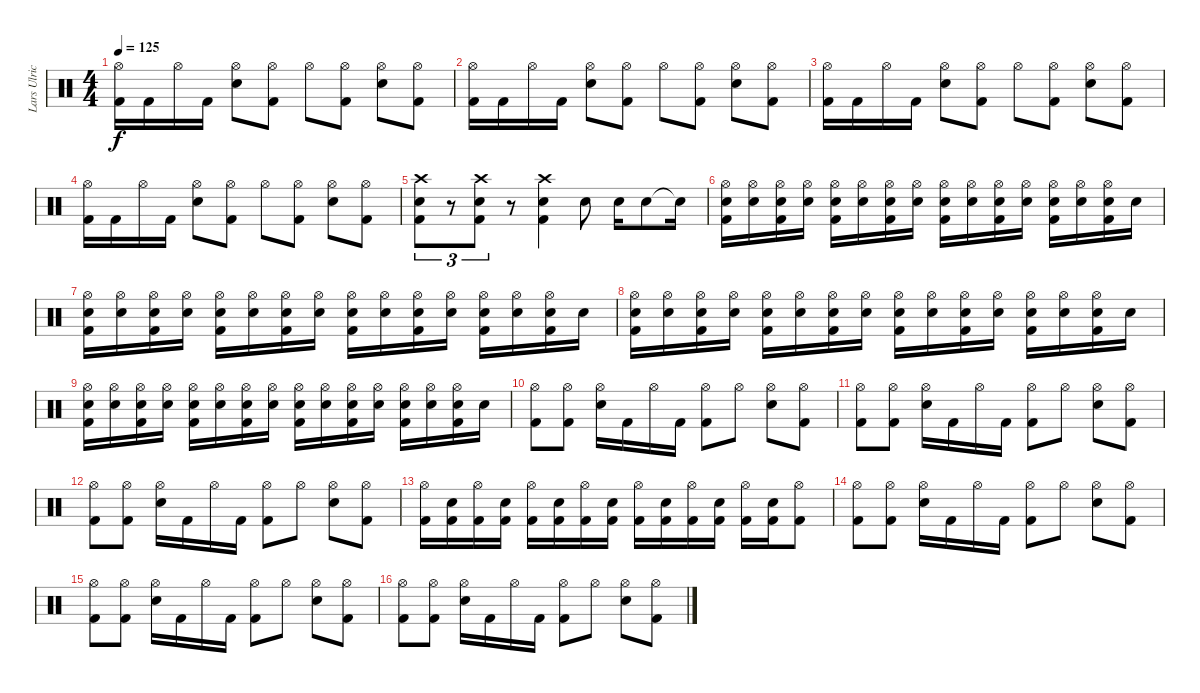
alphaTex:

\track ("Lars Ulrich" "Lars Ulric") {instrument percussion}
\staff {score}
\articulation defaults
\ts (4 4)
\tempo 125
\clef neutral
\ks c
("Hi-Hat (open)" "Kick (hit) 2").16{dy f} "Kick (hit) 2".16 "Hi-Hat (open)".16 "Kick (hit) 2".16 ("Hi-Hat (open)" "Electric Snare (hit)").8 ("Hi-Hat (open)" "Kick (hit) 2").8 "Hi-Hat (open)".8 ("Hi-Hat (open)" "Kick (hit) 2").8 ("Hi-Hat (open)" "Electric Snare (hit)").8 ("Hi-Hat (open)" "Kick (hit) 2").8 |
("Hi-Hat (open)" "Kick (hit) 2").16 "Kick (hit) 2".16 "Hi-Hat (open)".16 "Kick (hit) 2".16 ("Hi-Hat (open)" "Electric Snare (hit)").8 ("Hi-Hat (open)" "Kick (hit) 2").8 "Hi-Hat (open)".8 ("Hi-Hat (open)" "Kick (hit) 2").8 ("Hi-Hat (open)" "Electric Snare (hit)").8 ("Hi-Hat (open)" "Kick (hit) 2").8 |
("Hi-Hat (open)" "Kick (hit) 2").16 "Kick (hit) 2".16 "Hi-Hat (open)".16 "Kick (hit) 2".16 ("Hi-Hat (open)" "Electric Snare (hit)").8 ("Hi-Hat (open)" "Kick (hit) 2").8 "Hi-Hat (open)".8 ("Hi-Hat (open)" "Kick (hit) 2").8 ("Hi-Hat (open)" "Electric Snare (hit)").8 ("Hi-Hat (open)" "Kick (hit) 2").8 |
("Hi-Hat (open)" "Kick (hit) 2").16 "Kick (hit) 2".16 "Hi-Hat (open)".16 "Kick (hit) 2".16 ("Hi-Hat (open)" "Electric Snare (hit)").8 ("Hi-Hat (open)" "Kick (hit) 2").8 "Hi-Hat (open)".8 ("Hi-Hat (open)" "Kick (hit) 2").8 ("Hi-Hat (open)" "Electric Snare (hit)").8 ("Hi-Hat (open)" "Kick (hit) 2").8 |
("Crash high (hit)" "Electric Snare (hit)" "Kick (hit) 2").8{tu (3 2)} r.8{tu (3 2)} ("Crash high (hit)" "Electric Snare (hit)" "Kick (hit) 2").8{tu (3 2)} r.8 ("Crash high (hit)" "Electric Snare (hit)" "Kick (hit) 2").4 "Electric Snare (hit)".8 "Electric Snare (hit)".16 "Electric Snare (hit)".8 "Snare (hit)"{t}.16 |
("Hi-Hat (open)" "Electric Snare (hit)" "Kick (hit) 2").16 ("Hi-Hat (open)" "Electric Snare (hit)").16 ("Hi-Hat (open)" "Electric Snare (hit)" "Kick (hit) 2").16 ("Hi-Hat (open)" "Electric Snare (hit)").16 ("Hi-Hat (open)" "Electric Snare (hit)" "Kick (hit) 2").16 ("Hi-Hat (open)" "Electric Snare (hit)").16 ("Hi-Hat (open)" "Electric Snare (hit)" "Kick (hit) 2").16 ("Hi-Hat (open)" "Electric Snare (hit)").16 ("Hi-Hat (open)" "Electric Snare (hit)" "Kick (hit) 2").16 ("Hi-Hat (open)" "Electric Snare (hit)").16 ("Hi-Hat (open)" "Electric Snare (hit)" "Kick (hit) 2").16 ("Hi-Hat (open)" "Electric Snare (hit)").16 ("Hi-Hat (open)" "Electric Snare (hit)" "Kick (hit) 2").16 ("Hi-Hat (open)" "Electric Snare (hit)").16 ("Hi-Hat (open)" "Electric Snare (hit)" "Kick (hit) 2").16 "Electric Snare (hit)".16 |
("Hi-Hat (open)" "Electric Snare (hit)" "Kick (hit) 2").16 ("Hi-Hat (open)" "Electric Snare (hit)").16 ("Hi-Hat (open)" "Electric Snare (hit)" "Kick (hit) 2").16 ("Hi-Hat (open)" "Electric Snare (hit)").16 ("Hi-Hat (open)" "Electric Snare (hit)" "Kick (hit) 2").16 ("Hi-Hat (open)" "Electric Snare (hit)").16 ("Hi-Hat (open)" "Electric Snare (hit)" "Kick (hit) 2").16 ("Hi-Hat (open)" "Electric Snare (hit)").16 ("Hi-Hat (open)" "Electric Snare (hit)" "Kick (hit) 2").16 ("Hi-Hat (open)" "Electric Snare (hit)").16 ("Hi-Hat (open)" "Electric Snare (hit)" "Kick (hit) 2").16 ("Hi-Hat (open)" "Electric Snare (hit)").16 ("Hi-Hat (open)" "Electric Snare (hit)" "Kick (hit) 2").16 ("Hi-Hat (open)" "Electric Snare (hit)").16 ("Hi-Hat (open)" "Electric Snare (hit)" "Kick (hit) 2").16 "Electric Snare (hit)".16 |
("Hi-Hat (open)" "Electric Snare (hit)" "Kick (hit) 2").16 ("Hi-Hat (open)" "Electric Snare (hit)").16 ("Hi-Hat (open)" "Electric Snare (hit)" "Kick (hit) 2").16 ("Hi-Hat (open)" "Electric Snare (hit)").16 ("Hi-Hat (open)" "Electric Snare (hit)" "Kick (hit) 2").16 ("Hi-Hat (open)" "Electric Snare (hit)").16 ("Hi-Hat (open)" "Electric Snare (hit)" "Kick (hit) 2").16 ("Hi-Hat (open)" "Electric Snare (hit)").16 ("Hi-Hat (open)" "Electric Snare (hit)" "Kick (hit) 2").16 ("Hi-Hat (open)" "Electric Snare (hit)").16 ("Hi-Hat (open)" "Electric Snare (hit)" "Kick (hit) 2").16 ("Hi-Hat (open)" "Electric Snare (hit)").16 ("Hi-Hat (open)" "Electric Snare (hit)" "Kick (hit) 2").16 ("Hi-Hat (open)" "Electric Snare (hit)").16 ("Hi-Hat (open)" "Electric Snare (hit)" "Kick (hit) 2").16 "Electric Snare (hit)".16 |
("Hi-Hat (open)" "Electric Snare (hit)" "Kick (hit) 2").16 ("Hi-Hat (open)" "Electric Snare (hit)").16 ("Hi-Hat (open)" "Electric Snare (hit)" "Kick (hit) 2").16 ("Hi-Hat (open)" "Electric Snare (hit)").16 ("Hi-Hat (open)" "Electric Snare (hit)" "Kick (hit) 2").16 ("Hi-Hat (open)" "Electric Snare (hit)").16 ("Hi-Hat (open)" "Electric Snare (hit)" "Kick (hit) 2").16 ("Hi-Hat (open)" "Electric Snare (hit)").16 ("Hi-Hat (open)" "Electric Snare (hit)" "Kick (hit) 2").16 ("Hi-Hat (open)" "Electric Snare (hit)").16 ("Hi-Hat (open)" "Electric Snare (hit)" "Kick (hit) 2").16 ("Hi-Hat (open)" "Electric Snare (hit)").16 ("Hi-Hat (open)" "Electric Snare (hit)" "Kick (hit) 2").16 ("Hi-Hat (open)" "Electric Snare (hit)").16 ("Hi-Hat (open)" "Electric Snare (hit)" "Kick (hit) 2").16 "Electric Snare (hit)".16 |
("Hi-Hat (open)" "Kick (hit) 2").8 ("Hi-Hat (open)" "Kick (hit) 2").8 ("Hi-Hat (open)" "Electric Snare (hit)").16 "Kick (hit) 2".16 "Hi-Hat (open)".16 "Kick (hit) 2".16 ("Hi-Hat (open)" "Kick (hit) 2").8 "Hi-Hat (open)".8 ("Hi-Hat (open)" "Electric Snare (hit)").8 ("Hi-Hat (open)" "Kick (hit) 2").8 |
("Hi-Hat (open)" "Kick (hit) 2").8 ("Hi-Hat (open)" "Kick (hit) 2").8 ("Hi-Hat (open)" "Electric Snare (hit)").16 "Kick (hit) 2".16 "Hi-Hat (open)".16 "Kick (hit) 2".16 ("Hi-Hat (open)" "Kick (hit) 2").8 "Hi-Hat (open)".8 ("Hi-Hat (open)" "Electric Snare (hit)").8 ("Hi-Hat (open)" "Kick (hit) 2").8 |
("Hi-Hat (open)" "Kick (hit) 2").8 ("Hi-Hat (open)" "Kick (hit) 2").8 ("Hi-Hat (open)" "Electric Snare (hit)").16 "Kick (hit) 2".16 "Hi-Hat (open)".16 "Kick (hit) 2".16 ("Hi-Hat (open)" "Kick (hit) 2").8 "Hi-Hat (open)".8 ("Hi-Hat (open)" "Electric Snare (hit)").8 ("Hi-Hat (open)" "Kick (hit) 2").8 |
("Hi-Hat (open)" "Kick (hit) 2").16 ("Electric Snare (hit)" "Kick (hit) 2").16 ("Hi-Hat (open)" "Kick (hit) 2").16 ("Electric Snare (hit)" "Kick (hit) 2").16 ("Hi-Hat (open)" "Kick (hit) 2").16 ("Electric Snare (hit)" "Kick (hit) 2").16 ("Hi-Hat (open)" "Kick (hit) 2").16 ("Electric Snare (hit)" "Kick (hit) 2").16 ("Hi-Hat (open)" "Kick (hit) 2").16 ("Electric Snare (hit)" "Kick (hit) 2").16 ("Hi-Hat (open)" "Kick (hit) 2").16 ("Electric Snare (hit)" "Kick (hit) 2").16 ("Hi-Hat (open)" "Kick (hit) 2").16 ("Electric Snare (hit)" "Kick (hit) 2").16 ("Hi-Hat (open)" "Kick (hit) 2").8 |
("Hi-Hat (open)" "Kick (hit) 2").8 ("Hi-Hat (open)" "Kick (hit) 2").8 ("Hi-Hat (open)" "Electric Snare (hit)").16 "Kick (hit) 2".16 "Hi-Hat (open)".16 "Kick (hit) 2".16 ("Hi-Hat (open)" "Kick (hit) 2").8 "Hi-Hat (open)".8 ("Hi-Hat (open)" "Electric Snare (hit)").8 ("Hi-Hat (open)" "Kick (hit) 2").8 |
("Hi-Hat (open)" "Kick (hit) 2").8 ("Hi-Hat (open)" "Kick (hit) 2").8 ("Hi-Hat (open)" "Electric Snare (hit)").16 "Kick (hit) 2".16 "Hi-Hat (open)".16 "Kick (hit) 2".16 ("Hi-Hat (open)" "Kick (hit) 2").8 "Hi-Hat (open)".8 ("Hi-Hat (open)" "Electric Snare (hit)").8 ("Hi-Hat (open)" "Kick (hit) 2").8 |
("Hi-Hat (open)" "Kick (hit) 2").8 ("Hi-Hat (open)" "Kick (hit) 2").8 ("Hi-Hat (open)" "Electric Snare (hit)").16 "Kick (hit) 2".16 "Hi-Hat (open)".16 "Kick (hit) 2".16 ("Hi-Hat (open)" "Kick (hit) 2").8 "Hi-Hat (open)".8 ("Hi-Hat (open)" "Electric Snare (hit)").8 ("Hi-Hat (open)" "Kick (hit) 2").8
